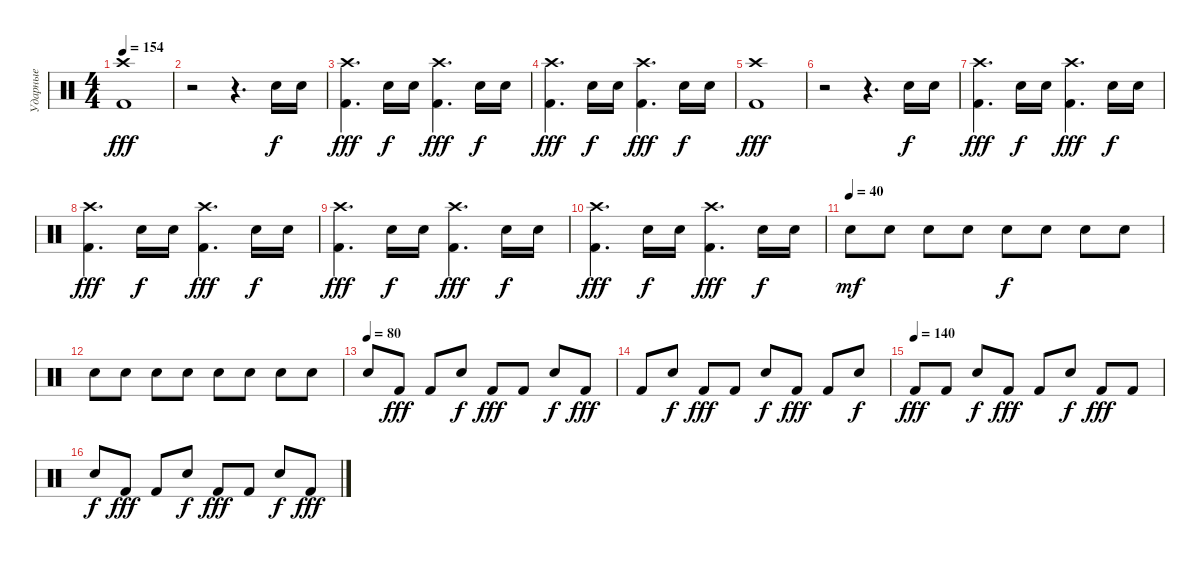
\track ("Ударные" "Ударные") {instrument percussion}
\staff
\articulation defaults
\ts (4 4)
\tempo 154
\clef neutral
\ks c
("Kick (hit) 2" "Crash high (hit)").1{dy fff} |
r.2 r.4{d} "Snare (hit) 2".16{dy f} "Snare (hit) 2".16 |
("Kick (hit) 2" "Crash high (hit)").4{d dy fff} "Snare (hit) 2".16{dy f} "Snare (hit) 2".16 ("Kick (hit) 2" "Crash high (hit)").4{d dy fff} "Snare (hit) 2".16{dy f} "Snare (hit) 2".16 |
("Kick (hit) 2" "Crash high (hit)").4{d dy fff} "Snare (hit) 2".16{dy f} "Snare (hit) 2".16 ("Kick (hit) 2" "Crash high (hit)").4{d dy fff} "Snare (hit) 2".16{dy f} "Snare (hit) 2".16 |
("Kick (hit) 2" "Crash high (hit)").1{dy fff} |
r.2 r.4{d} "Snare (hit) 2".16{dy f} "Snare (hit) 2".16 |
("Kick (hit) 2" "Crash high (hit)").4{d dy fff} "Snare (hit) 2".16{dy f} "Snare (hit) 2".16 ("Kick (hit) 2" "Crash high (hit)").4{d dy fff} "Snare (hit) 2".16{dy f} "Snare (hit) 2".16 |
("Kick (hit) 2" "Crash high (hit)").4{d dy fff} "Snare (hit) 2".16{dy f} "Snare (hit) 2".16 ("Kick (hit) 2" "Crash high (hit)").4{d dy fff} "Snare (hit) 2".16{dy f} "Snare (hit) 2".16 |
("Kick (hit) 2" "Crash high (hit)").4{d dy fff} "Snare (hit) 2".16{dy f} "Snare (hit) 2".16 ("Kick (hit) 2" "Crash high (hit)").4{d dy fff} "Snare (hit) 2".16{dy f} "Snare (hit) 2".16 |
("Kick (hit) 2" "Crash high (hit)").4{d dy fff} "Snare (hit) 2".16{dy f} "Snare (hit) 2".16 ("Kick (hit) 2" "Crash high (hit)").4{d dy fff} "Snare (hit) 2".16{dy f} "Snare (hit) 2".16 |
\tempo (40)
"Snare (hit) 2".8{dy mf} "Snare (hit) 2".8 "Snare (hit) 2".8 "Snare (hit) 2".8 "Snare (hit) 2".8{dy f} "Snare (hit) 2".8 "Snare (hit) 2".8 "Snare (hit) 2".8 |
"Snare (hit) 2".8 "Snare (hit) 2".8 "Snare (hit) 2".8 "Snare (hit) 2".8 "Snare (hit) 2".8 "Snare (hit) 2".8 "Snare (hit) 2".8 "Snare (hit) 2".8 |
\tempo (80)
"Snare (hit) 2".8 "Kick (hit) 2".8{dy fff} "Kick (hit) 2".8 "Snare (hit) 2".8{dy f} "Kick (hit) 2".8{dy fff} "Kick (hit) 2".8 "Snare (hit) 2".8{dy f} "Kick (hit) 2".8{dy fff} |
"Kick (hit) 2".8 "Snare (hit) 2".8{dy f} "Kick (hit) 2".8{dy fff} "Kick (hit) 2".8 "Snare (hit) 2".8{dy f} "Kick (hit) 2".8{dy fff} "Kick (hit) 2".8 "Snare (hit) 2".8{dy f} |
\tempo (140)
"Kick (hit) 2".8{dy fff} "Kick (hit) 2".8 "Snare (hit) 2".8{dy f} "Kick (hit) 2".8{dy fff} "Kick (hit) 2".8 "Snare (hit) 2".8{dy f} "Kick (hit) 2".8{dy fff} "Kick (hit) 2".8 |
"Snare (hit) 2".8{dy f} "Kick (hit) 2".8{dy fff} "Kick (hit) 2".8 "Snare (hit) 2".8{dy f} "Kick (hit) 2".8{dy fff} "Kick (hit) 2".8 "Snare (hit) 2".8{dy f} "Kick (hit) 2".8{dy fff}
